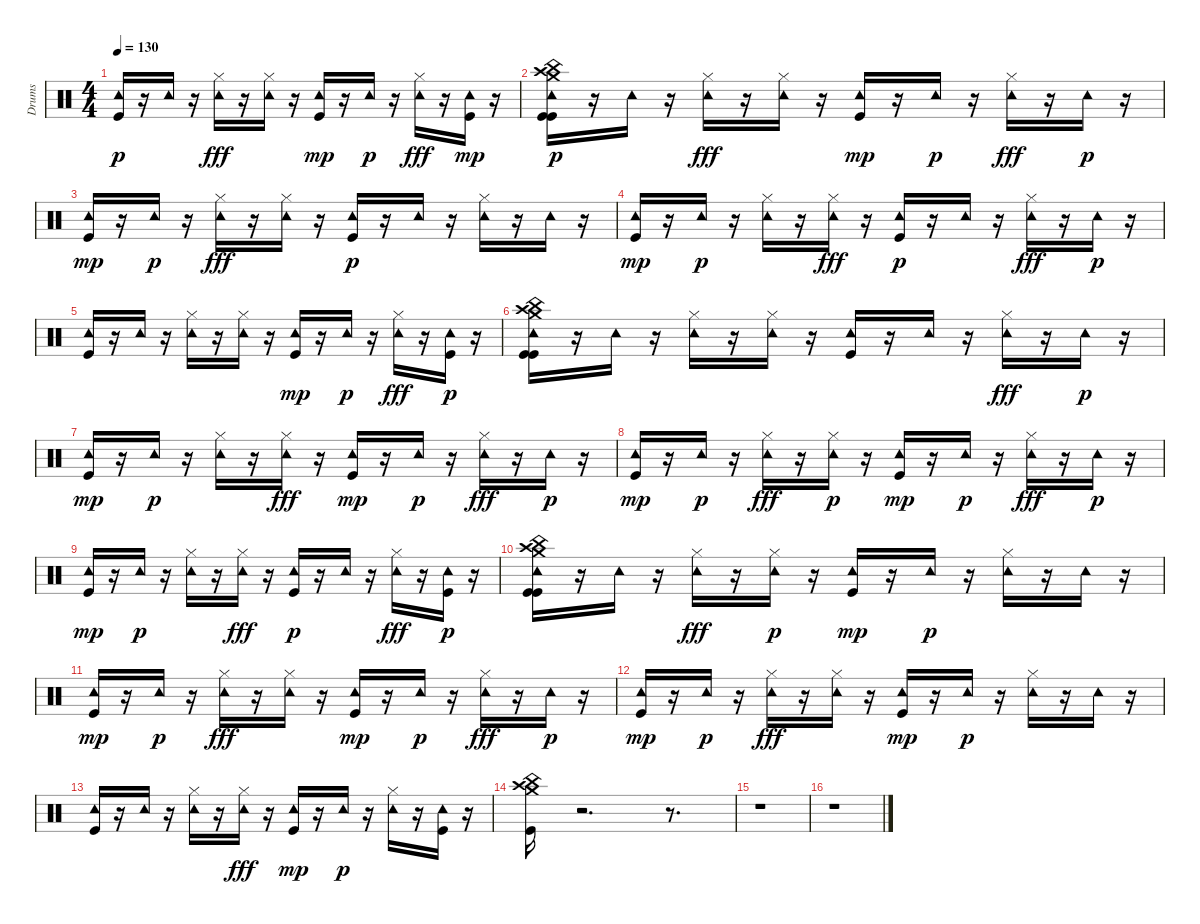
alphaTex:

\track ("Drums" "Drums") {instrument percussion}
\staff {score}
\articulation defaults
\ts (4 4)
\tempo 130
\clef neutral
\ks c
("Kick (hit)" "Tambourine (hit)").16{dy p} r.16 "Tambourine (hit)".16 r.16 ("Tambourine (hit)" "Hi-Hat (closed)").16{dy fff} r.16 ("Tambourine (hit)" "Hi-Hat (closed)").16 r.16 ("Tambourine (hit)" "Kick (hit)").16{dy mp} r.16 "Tambourine (hit)".16{dy p} r.16 ("Tambourine (hit)" "Hi-Hat (closed)").16{dy fff} r.16 ("Tambourine (hit)" "Kick (hit)").16{dy mp} r.16 |
("Crash high (hit)" "China (hit)" "Kick (hit)" "Kick (hit)" "Tambourine (hit)" "Crash medium (hit)").16{dy p} r.16 "Tambourine (hit)".16 r.16 ("Tambourine (hit)" "Hi-Hat (closed)").16{dy fff} r.16 ("Tambourine (hit)" "Hi-Hat (closed)").16 r.16 ("Tambourine (hit)" "Kick (hit)").16{dy mp} r.16 "Tambourine (hit)".16{dy p} r.16 ("Tambourine (hit)" "Hi-Hat (closed)").16{dy fff} r.16 "Tambourine (hit)".16{dy p} r.16 |
("Tambourine (hit)" "Kick (hit)").16{dy mp} r.16 "Tambourine (hit)".16{dy p} r.16 ("Tambourine (hit)" "Hi-Hat (closed)").16{dy fff} r.16 ("Tambourine (hit)" "Hi-Hat (closed)").16 r.16 ("Kick (hit)" "Tambourine (hit)").16{dy p} r.16 "Tambourine (hit)".16 r.16 ("Hi-Hat (closed)" "Tambourine (hit)").16 r.16 "Tambourine (hit)".16 r.16 |
("Tambourine (hit)" "Kick (hit)").16{dy mp} r.16 "Tambourine (hit)".16{dy p} r.16 ("Hi-Hat (closed)" "Tambourine (hit)").16 r.16 ("Tambourine (hit)" "Hi-Hat (closed)").16{dy fff} r.16 ("Kick (hit)" "Tambourine (hit)").16{dy p} r.16 "Tambourine (hit)".16 r.16 ("Tambourine (hit)" "Hi-Hat (closed)").16{dy fff} r.16 "Tambourine (hit)".16{dy p} r.16 |
("Kick (hit)" "Tambourine (hit)").16 r.16 "Tambourine (hit)".16 r.16 ("Hi-Hat (closed)" "Tambourine (hit)").16 r.16 ("Hi-Hat (closed)" "Tambourine (hit)").16 r.16 ("Tambourine (hit)" "Kick (hit)").16{dy mp} r.16 "Tambourine (hit)".16{dy p} r.16 ("Tambourine (hit)" "Hi-Hat (closed)").16{dy fff} r.16 ("Kick (hit)" "Tambourine (hit)").16{dy p} r.16 |
("Kick (hit)" "China (hit)" "Kick (hit)" "Crash medium (hit)" "Tambourine (hit)" "Crash high (hit)").16 r.16 "Tambourine (hit)".16 r.16 ("Hi-Hat (closed)" "Tambourine (hit)").16 r.16 ("Hi-Hat (closed)" "Tambourine (hit)").16 r.16 ("Kick (hit)" "Tambourine (hit)").16 r.16 "Tambourine (hit)".16 r.16 ("Tambourine (hit)" "Hi-Hat (closed)").16{dy fff} r.16 "Tambourine (hit)".16{dy p} r.16 |
("Tambourine (hit)" "Kick (hit)").16{dy mp} r.16 "Tambourine (hit)".16{dy p} r.16 ("Hi-Hat (closed)" "Tambourine (hit)").16 r.16 ("Tambourine (hit)" "Hi-Hat (closed)").16{dy fff} r.16 ("Tambourine (hit)" "Kick (hit)").16{dy mp} r.16 "Tambourine (hit)".16{dy p} r.16 ("Tambourine (hit)" "Hi-Hat (closed)").16{dy fff} r.16 "Tambourine (hit)".16{dy p} r.16 |
("Tambourine (hit)" "Kick (hit)").16{dy mp} r.16 "Tambourine (hit)".16{dy p} r.16 ("Tambourine (hit)" "Hi-Hat (closed)").16{dy fff} r.16 ("Hi-Hat (closed)" "Tambourine (hit)").16{dy p} r.16 ("Tambourine (hit)" "Kick (hit)").16{dy mp} r.16 "Tambourine (hit)".16{dy p} r.16 ("Tambourine (hit)" "Hi-Hat (closed)").16{dy fff} r.16 "Tambourine (hit)".16{dy p} r.16 |
("Tambourine (hit)" "Kick (hit)").16{dy mp} r.16 "Tambourine (hit)".16{dy p} r.16 ("Hi-Hat (closed)" "Tambourine (hit)").16 r.16 ("Tambourine (hit)" "Hi-Hat (closed)").16{dy fff} r.16 ("Kick (hit)" "Tambourine (hit)").16{dy p} r.16 "Tambourine (hit)".16 r.16 ("Tambourine (hit)" "Hi-Hat (closed)").16{dy fff} r.16 ("Kick (hit)" "Tambourine (hit)").16{dy p} r.16 |
("Crash high (hit)" "China (hit)" "Kick (hit)" "Kick (hit)" "Tambourine (hit)" "Crash medium (hit)").16 r.16 "Tambourine (hit)".16 r.16 ("Tambourine (hit)" "Hi-Hat (closed)").16{dy fff} r.16 ("Hi-Hat (closed)" "Tambourine (hit)").16{dy p} r.16 ("Tambourine (hit)" "Kick (hit)").16{dy mp} r.16 "Tambourine (hit)".16{dy p} r.16 ("Hi-Hat (closed)" "Tambourine (hit)").16 r.16 "Tambourine (hit)".16 r.16 |
("Tambourine (hit)" "Kick (hit)").16{dy mp} r.16 "Tambourine (hit)".16{dy p} r.16 ("Tambourine (hit)" "Hi-Hat (closed)").16{dy fff} r.16 ("Tambourine (hit)" "Hi-Hat (closed)").16 r.16 ("Tambourine (hit)" "Kick (hit)").16{dy mp} r.16 "Tambourine (hit)".16{dy p} r.16 ("Tambourine (hit)" "Hi-Hat (closed)").16{dy fff} r.16 "Tambourine (hit)".16{dy p} r.16 |
("Tambourine (hit)" "Kick (hit)").16{dy mp} r.16 "Tambourine (hit)".16{dy p} r.16 ("Tambourine (hit)" "Hi-Hat (closed)").16{dy fff} r.16 ("Tambourine (hit)" "Hi-Hat (closed)").16 r.16 ("Tambourine (hit)" "Kick (hit)").16{dy mp} r.16 "Tambourine (hit)".16{dy p} r.16 ("Hi-Hat (closed)" "Tambourine (hit)").16 r.16 "Tambourine (hit)".16 r.16 |
("Kick (hit)" "Tambourine (hit)").16 r.16 "Tambourine (hit)".16 r.16 ("Hi-Hat (closed)" "Tambourine (hit)").16 r.16 ("Tambourine (hit)" "Hi-Hat (closed)").16{dy fff} r.16 ("Tambourine (hit)" "Kick (hit)").16{dy mp} r.16 "Tambourine (hit)".16{dy p} r.16 ("Hi-Hat (closed)" "Tambourine (hit)").16 r.16 ("Kick (hit)" "Tambourine (hit)").16 r.16 |
("China (hit)" "Crash medium (hit)" "Kick (hit)" "Crash high (hit)").16 r.2{d} r.8{d} |
r.1 |
r.1
